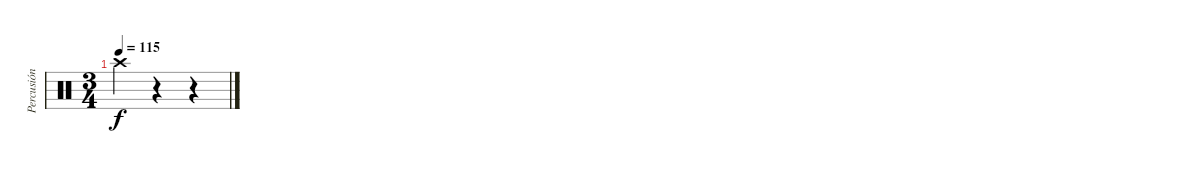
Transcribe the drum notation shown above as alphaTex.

\track ("Percusión" "Percusión") {instrument percussion}
\staff {score}
\articulation defaults
\ts (3 4)
\tempo 115
\clef neutral
\ks c "Crash high (hit)".4{dy f}
r.4 r.4
